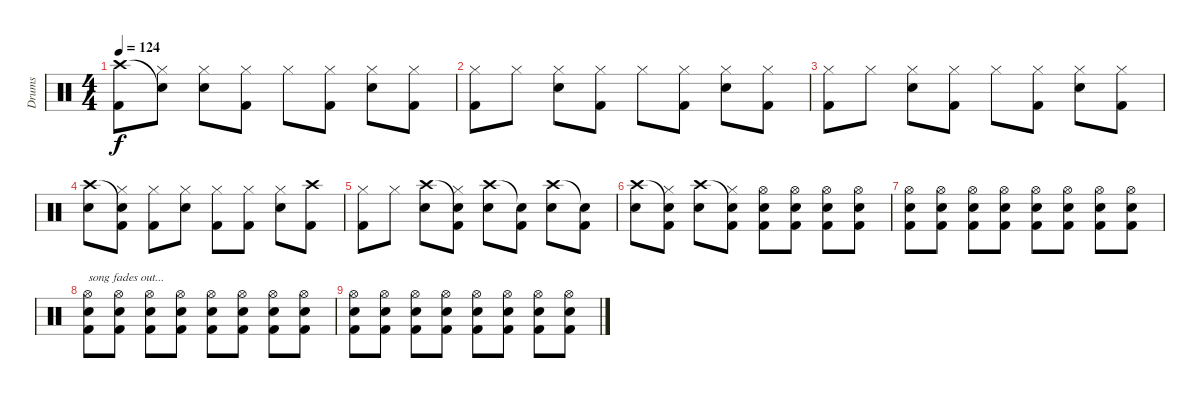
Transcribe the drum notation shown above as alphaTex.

\track ("Drums" "Drums") {instrument percussion}
\staff {score}
\articulation defaults
\ts (4 4)
\tempo 124
\clef neutral
\ks c
("Crash high (hit)" "Kick (hit) 2").8{dy f} ("Snare (hit)"{t} "Hi-Hat (closed)").8 ("Hi-Hat (closed)" "Snare (hit) 2").8 ("Hi-Hat (closed)" "Kick (hit) 2").8 "Hi-Hat (closed)".8 ("Hi-Hat (closed)" "Kick (hit) 2").8 ("Hi-Hat (closed)" "Snare (hit) 2").8 ("Hi-Hat (closed)" "Kick (hit) 2").8 |
("Hi-Hat (closed)" "Kick (hit) 2").8 "Hi-Hat (closed)".8 ("Hi-Hat (closed)" "Snare (hit) 2").8 ("Hi-Hat (closed)" "Kick (hit) 2").8 "Hi-Hat (closed)".8 ("Hi-Hat (closed)" "Kick (hit) 2").8 ("Hi-Hat (closed)" "Snare (hit) 2").8 ("Hi-Hat (closed)" "Kick (hit) 2").8 |
("Hi-Hat (closed)" "Kick (hit) 2").8 "Hi-Hat (closed)".8 ("Hi-Hat (closed)" "Snare (hit) 2").8 ("Hi-Hat (closed)" "Kick (hit) 2").8 "Hi-Hat (closed)".8 ("Hi-Hat (closed)" "Kick (hit) 2").8 ("Hi-Hat (closed)" "Snare (hit) 2").8 ("Hi-Hat (closed)" "Kick (hit) 2").8 |
("Crash high (hit)" "Snare (hit) 2").8 ("Snare (hit)"{t} "Hi-Hat (closed)" "Kick (hit) 2").8 ("Hi-Hat (closed)" "Kick (hit) 2").8 ("Hi-Hat (closed)" "Snare (hit) 2").8 ("Hi-Hat (closed)" "Kick (hit) 2").8 ("Hi-Hat (closed)" "Kick (hit) 2").8 ("Hi-Hat (closed)" "Snare (hit) 2").8 ("Crash high (hit)" "Kick (hit) 2").8 |
("Hi-Hat (closed)" "Kick (hit) 2").8 "Hi-Hat (closed)".8 ("Crash high (hit)" "Snare (hit) 2").8 ("Snare (hit)"{t} "Hi-Hat (closed)" "Kick (hit) 2").8 ("Crash high (hit)" "Snare (hit) 2").8 ("Snare (hit)"{t} "Kick (hit) 2").8 ("Crash high (hit)" "Snare (hit) 2").8 ("Snare (hit)"{t} "Kick (hit) 2").8 |
("Crash high (hit)" "Snare (hit) 2").8 ("Snare (hit)"{t} "Hi-Hat (closed)" "Kick (hit) 2").8 ("Crash high (hit)" "Snare (hit) 2").8 ("Snare (hit)"{t} "Hi-Hat (closed)" "Kick (hit) 2").8 ("Hi-Hat (open)" "Snare (hit) 2" "Kick (hit) 2").8 ("Hi-Hat (open)" "Snare (hit) 2" "Kick (hit) 2").8 ("Hi-Hat (open)" "Snare (hit) 2" "Kick (hit) 2").8 ("Hi-Hat (open)" "Snare (hit) 2" "Kick (hit) 2").8 |
("Hi-Hat (open)" "Snare (hit) 2" "Kick (hit) 2").8 ("Hi-Hat (open)" "Snare (hit) 2" "Kick (hit) 2").8 ("Hi-Hat (open)" "Snare (hit) 2" "Kick (hit) 2").8 ("Hi-Hat (open)" "Snare (hit) 2" "Kick (hit) 2").8 ("Hi-Hat (open)" "Snare (hit) 2" "Kick (hit) 2").8 ("Hi-Hat (open)" "Snare (hit) 2" "Kick (hit) 2").8 ("Hi-Hat (open)" "Snare (hit) 2" "Kick (hit) 2").8 ("Hi-Hat (open)" "Snare (hit) 2" "Kick (hit) 2").8 |
("Hi-Hat (open)" "Snare (hit) 2" "Kick (hit) 2").8{txt "song fades out..." volume 0} ("Hi-Hat (open)" "Snare (hit) 2" "Kick (hit) 2").8 ("Hi-Hat (open)" "Snare (hit) 2" "Kick (hit) 2").8 ("Hi-Hat (open)" "Snare (hit) 2" "Kick (hit) 2").8 ("Hi-Hat (open)" "Snare (hit) 2" "Kick (hit) 2").8 ("Hi-Hat (open)" "Snare (hit) 2" "Kick (hit) 2").8 ("Hi-Hat (open)" "Snare (hit) 2" "Kick (hit) 2").8 ("Hi-Hat (open)" "Snare (hit) 2" "Kick (hit) 2").8 |
("Hi-Hat (open)" "Snare (hit) 2" "Kick (hit) 2").8 ("Hi-Hat (open)" "Snare (hit) 2" "Kick (hit) 2").8 ("Hi-Hat (open)" "Snare (hit) 2" "Kick (hit) 2").8 ("Hi-Hat (open)" "Snare (hit) 2" "Kick (hit) 2").8 ("Hi-Hat (open)" "Snare (hit) 2" "Kick (hit) 2").8 ("Hi-Hat (open)" "Snare (hit) 2" "Kick (hit) 2").8 ("Hi-Hat (open)" "Snare (hit) 2" "Kick (hit) 2").8 ("Hi-Hat (open)" "Snare (hit) 2" "Kick (hit) 2").8
